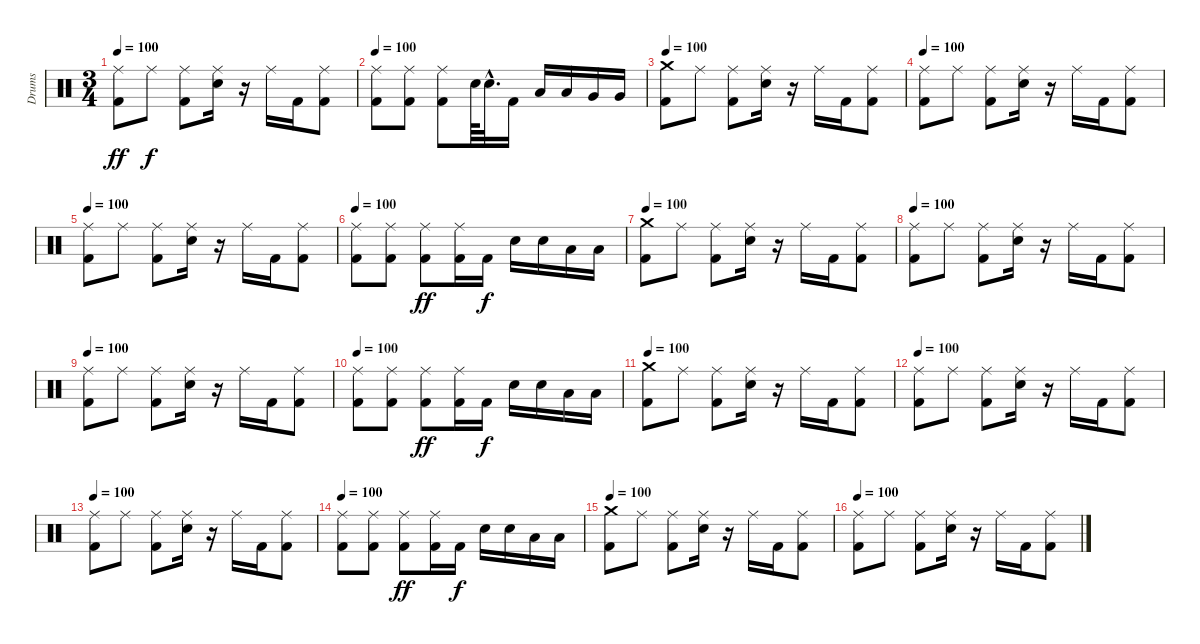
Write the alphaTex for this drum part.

\track ("Drums" "Drums") {instrument percussion}
\staff {score}
\articulation defaults
\ts (3 4)
\tempo 100
\clef neutral
\ks c
("Ride (middle)" "Kick (hit) 2").8{dy ff} "Ride (middle)".8{dy f} ("Ride (middle)" "Kick (hit) 2").8 ("Ride (middle)" "Electric Snare (hit)").16 r.16 "Ride (middle)".16 "Kick (hit) 2".16 ("Ride (middle)" "Kick (hit) 2").8 |
\tempo 100
("Ride (middle)" "Kick (hit) 2").8 ("Ride (middle)" "Kick (hit) 2").8 ("Ride (middle)" "Kick (hit) 2").8 "Electric Snare (hit)".64 "Electric Snare (hit)"{hac}.32{d} "Kick (hit) 2".16 "Low Tom (hit)".16 "Low Tom (hit)".16 "Very Low Tom (hit)".16 "Very Low Tom (hit)".16 |
\tempo 100
("Crash medium (hit)" "Kick (hit) 2").8 "Ride (middle)".8 ("Ride (middle)" "Kick (hit) 2").8 ("Ride (middle)" "Electric Snare (hit)").16 r.16 "Ride (middle)".16 "Kick (hit) 2".16 ("Ride (middle)" "Kick (hit) 2").8 |
\tempo 100
("Ride (middle)" "Kick (hit) 2").8 "Ride (middle)".8 ("Ride (middle)" "Kick (hit) 2").8 ("Ride (middle)" "Electric Snare (hit)").16 r.16 "Ride (middle)".16 "Kick (hit) 2".16 ("Ride (middle)" "Kick (hit) 2").8 |
\tempo 100
("Ride (middle)" "Kick (hit) 2").8 "Ride (middle)".8 ("Ride (middle)" "Kick (hit) 2").8 ("Ride (middle)" "Electric Snare (hit)").16 r.16 "Ride (middle)".16 "Kick (hit) 2".16 ("Ride (middle)" "Kick (hit) 2").8 |
\tempo 100
("Ride (middle)" "Kick (hit) 2").8 ("Ride (middle)" "Kick (hit) 2").8 ("Ride (middle)" "Kick (hit) 2").8{dy ff} ("Ride (middle)" "Kick (hit) 2").16 "Kick (hit) 2".16{dy f} "Electric Snare (hit)".16 "Electric Snare (hit)".16 "Low Tom (hit)".16 "Low Tom (hit)".16 |
\tempo 100
("Crash medium (hit)" "Kick (hit) 2").8 "Ride (middle)".8 ("Ride (middle)" "Kick (hit) 2").8 ("Ride (middle)" "Electric Snare (hit)").16 r.16 "Ride (middle)".16 "Kick (hit) 2".16 ("Ride (middle)" "Kick (hit) 2").8 |
\tempo 100
("Ride (middle)" "Kick (hit) 2").8 "Ride (middle)".8 ("Ride (middle)" "Kick (hit) 2").8 ("Ride (middle)" "Electric Snare (hit)").16 r.16 "Ride (middle)".16 "Kick (hit) 2".16 ("Ride (middle)" "Kick (hit) 2").8 |
\tempo 100
("Ride (middle)" "Kick (hit) 2").8 "Ride (middle)".8 ("Ride (middle)" "Kick (hit) 2").8 ("Ride (middle)" "Electric Snare (hit)").16 r.16 "Ride (middle)".16 "Kick (hit) 2".16 ("Ride (middle)" "Kick (hit) 2").8 |
\tempo 100
("Ride (middle)" "Kick (hit) 2").8 ("Ride (middle)" "Kick (hit) 2").8 ("Ride (middle)" "Kick (hit) 2").8{dy ff} ("Ride (middle)" "Kick (hit) 2").16 "Kick (hit) 2".16{dy f} "Electric Snare (hit)".16 "Electric Snare (hit)".16 "Low Tom (hit)".16 "Low Tom (hit)".16 |
\tempo 100
("Crash medium (hit)" "Kick (hit) 2").8 "Ride (middle)".8 ("Ride (middle)" "Kick (hit) 2").8 ("Ride (middle)" "Electric Snare (hit)").16 r.16 "Ride (middle)".16 "Kick (hit) 2".16 ("Ride (middle)" "Kick (hit) 2").8 |
\tempo 100
("Ride (middle)" "Kick (hit) 2").8 "Ride (middle)".8 ("Ride (middle)" "Kick (hit) 2").8 ("Ride (middle)" "Electric Snare (hit)").16 r.16 "Ride (middle)".16 "Kick (hit) 2".16 ("Ride (middle)" "Kick (hit) 2").8 |
\tempo 100
("Ride (middle)" "Kick (hit) 2").8 "Ride (middle)".8 ("Ride (middle)" "Kick (hit) 2").8 ("Ride (middle)" "Electric Snare (hit)").16 r.16 "Ride (middle)".16 "Kick (hit) 2".16 ("Ride (middle)" "Kick (hit) 2").8 |
\tempo 100
("Ride (middle)" "Kick (hit) 2").8 ("Ride (middle)" "Kick (hit) 2").8 ("Ride (middle)" "Kick (hit) 2").8{dy ff} ("Ride (middle)" "Kick (hit) 2").16 "Kick (hit) 2".16{dy f} "Electric Snare (hit)".16 "Electric Snare (hit)".16 "Low Tom (hit)".16 "Low Tom (hit)".16 |
\tempo 100
("Crash medium (hit)" "Kick (hit) 2").8 "Ride (middle)".8 ("Ride (middle)" "Kick (hit) 2").8 ("Ride (middle)" "Electric Snare (hit)").16 r.16 "Ride (middle)".16 "Kick (hit) 2".16 ("Ride (middle)" "Kick (hit) 2").8 |
\tempo 100
("Ride (middle)" "Kick (hit) 2").8 "Ride (middle)".8 ("Ride (middle)" "Kick (hit) 2").8 ("Ride (middle)" "Electric Snare (hit)").16 r.16 "Ride (middle)".16 "Kick (hit) 2".16 ("Ride (middle)" "Kick (hit) 2").8
